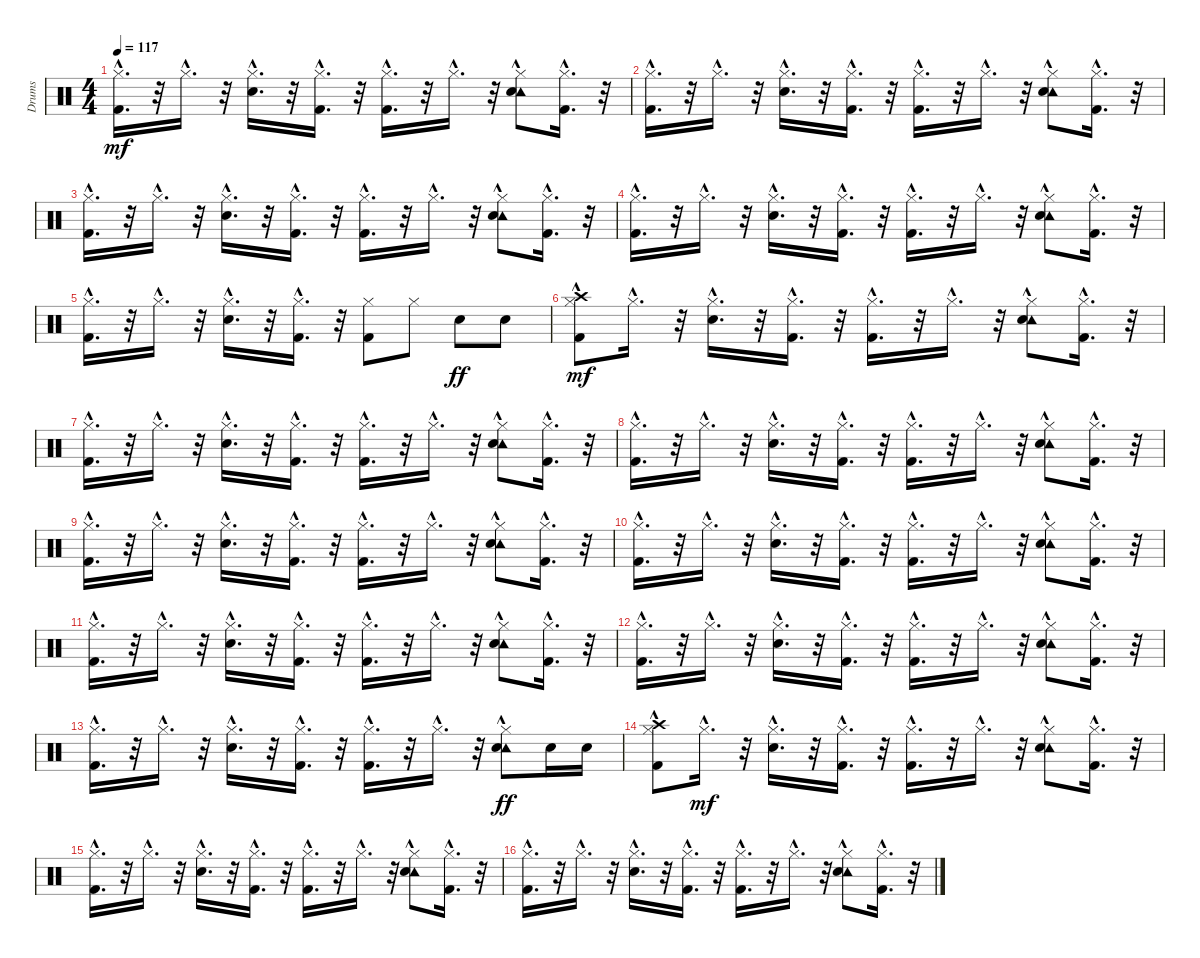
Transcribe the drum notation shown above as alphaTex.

\track ("Drums" "Drums") {instrument percussion}
\staff {score}
\articulation defaults
\ts (4 4)
\tempo 117
\clef neutral
\ks c
("Kick (hit) 2"{hac} "Hi-Hat (closed)"{hac}).16{d dy mf} r.32 "Hi-Hat (closed)"{hac}.16{d} r.32 ("Snare (hit) 2"{hac} "Hi-Hat (closed)"{hac}).16{d} r.32 ("Kick (hit) 2"{hac} "Hi-Hat (closed)"{hac}).16{d} r.32 ("Kick (hit) 2"{hac} "Hi-Hat (closed)"{hac}).16{d} r.32 "Hi-Hat (closed)"{hac}.16{d} r.32 ("Tambourine (hit)" "Snare (hit) 2"{hac} "Hi-Hat (closed)"{hac}).8 ("Kick (hit) 2"{hac} "Hi-Hat (closed)"{hac}).16{d} r.32 |
("Kick (hit) 2"{hac} "Hi-Hat (closed)"{hac}).16{d} r.32 "Hi-Hat (closed)"{hac}.16{d} r.32 ("Snare (hit) 2"{hac} "Hi-Hat (closed)"{hac}).16{d} r.32 ("Kick (hit) 2"{hac} "Hi-Hat (closed)"{hac}).16{d} r.32 ("Kick (hit) 2"{hac} "Hi-Hat (closed)"{hac}).16{d} r.32 "Hi-Hat (closed)"{hac}.16{d} r.32 ("Tambourine (hit)" "Snare (hit) 2"{hac} "Hi-Hat (closed)"{hac}).8 ("Kick (hit) 2"{hac} "Hi-Hat (closed)"{hac}).16{d} r.32 |
("Kick (hit) 2"{hac} "Hi-Hat (closed)"{hac}).16{d} r.32 "Hi-Hat (closed)"{hac}.16{d} r.32 ("Snare (hit) 2"{hac} "Hi-Hat (closed)"{hac}).16{d} r.32 ("Kick (hit) 2"{hac} "Hi-Hat (closed)"{hac}).16{d} r.32 ("Kick (hit) 2"{hac} "Hi-Hat (closed)"{hac}).16{d} r.32 "Hi-Hat (closed)"{hac}.16{d} r.32 ("Tambourine (hit)" "Snare (hit) 2"{hac} "Hi-Hat (closed)"{hac}).8 ("Kick (hit) 2"{hac} "Hi-Hat (closed)"{hac}).16{d} r.32 |
("Kick (hit) 2"{hac} "Hi-Hat (closed)"{hac}).16{d} r.32 "Hi-Hat (closed)"{hac}.16{d} r.32 ("Snare (hit) 2"{hac} "Hi-Hat (closed)"{hac}).16{d} r.32 ("Kick (hit) 2"{hac} "Hi-Hat (closed)"{hac}).16{d} r.32 ("Kick (hit) 2"{hac} "Hi-Hat (closed)"{hac}).16{d} r.32 "Hi-Hat (closed)"{hac}.16{d} r.32 ("Tambourine (hit)" "Snare (hit) 2"{hac} "Hi-Hat (closed)"{hac}).8 ("Kick (hit) 2"{hac} "Hi-Hat (closed)"{hac}).16{d} r.32 |
("Kick (hit) 2"{hac} "Hi-Hat (closed)"{hac}).16{d} r.32 "Hi-Hat (closed)"{hac}.16{d} r.32 ("Snare (hit) 2"{hac} "Hi-Hat (closed)"{hac}).16{d} r.32 ("Kick (hit) 2"{hac} "Hi-Hat (closed)"{hac}).16{d} r.32 ("Kick (hit) 2" "Hi-Hat (closed)").8 "Hi-Hat (closed)".8 "Snare (hit) 2".8{dy ff} "Snare (hit) 2".8 |
("Crash high (hit)" "Kick (hit) 2"{hac} "Hi-Hat (closed)"{hac}).8{dy mf} "Hi-Hat (closed)"{hac}.16{d} r.32 ("Snare (hit) 2"{hac} "Hi-Hat (closed)"{hac}).16{d} r.32 ("Kick (hit) 2"{hac} "Hi-Hat (closed)"{hac}).16{d} r.32 ("Kick (hit) 2"{hac} "Hi-Hat (closed)"{hac}).16{d} r.32 "Hi-Hat (closed)"{hac}.16{d} r.32 ("Tambourine (hit)" "Snare (hit) 2"{hac} "Hi-Hat (closed)"{hac}).8 ("Kick (hit) 2"{hac} "Hi-Hat (closed)"{hac}).16{d} r.32 |
("Kick (hit) 2"{hac} "Hi-Hat (closed)"{hac}).16{d} r.32 "Hi-Hat (closed)"{hac}.16{d} r.32 ("Snare (hit) 2"{hac} "Hi-Hat (closed)"{hac}).16{d} r.32 ("Kick (hit) 2"{hac} "Hi-Hat (closed)"{hac}).16{d} r.32 ("Kick (hit) 2"{hac} "Hi-Hat (closed)"{hac}).16{d} r.32 "Hi-Hat (closed)"{hac}.16{d} r.32 ("Tambourine (hit)" "Snare (hit) 2"{hac} "Hi-Hat (closed)"{hac}).8 ("Kick (hit) 2"{hac} "Hi-Hat (closed)"{hac}).16{d} r.32 |
("Kick (hit) 2"{hac} "Hi-Hat (closed)"{hac}).16{d} r.32 "Hi-Hat (closed)"{hac}.16{d} r.32 ("Snare (hit) 2"{hac} "Hi-Hat (closed)"{hac}).16{d} r.32 ("Kick (hit) 2"{hac} "Hi-Hat (closed)"{hac}).16{d} r.32 ("Kick (hit) 2"{hac} "Hi-Hat (closed)"{hac}).16{d} r.32 "Hi-Hat (closed)"{hac}.16{d} r.32 ("Tambourine (hit)" "Snare (hit) 2"{hac} "Hi-Hat (closed)"{hac}).8 ("Kick (hit) 2"{hac} "Hi-Hat (closed)"{hac}).16{d} r.32 |
("Kick (hit) 2"{hac} "Hi-Hat (closed)"{hac}).16{d} r.32 "Hi-Hat (closed)"{hac}.16{d} r.32 ("Snare (hit) 2"{hac} "Hi-Hat (closed)"{hac}).16{d} r.32 ("Kick (hit) 2"{hac} "Hi-Hat (closed)"{hac}).16{d} r.32 ("Kick (hit) 2"{hac} "Hi-Hat (closed)"{hac}).16{d} r.32 "Hi-Hat (closed)"{hac}.16{d} r.32 ("Tambourine (hit)" "Snare (hit) 2"{hac} "Hi-Hat (closed)"{hac}).8 ("Kick (hit) 2"{hac} "Hi-Hat (closed)"{hac}).16{d} r.32 |
("Kick (hit) 2"{hac} "Hi-Hat (closed)"{hac}).16{d} r.32 "Hi-Hat (closed)"{hac}.16{d} r.32 ("Snare (hit) 2"{hac} "Hi-Hat (closed)"{hac}).16{d} r.32 ("Kick (hit) 2"{hac} "Hi-Hat (closed)"{hac}).16{d} r.32 ("Kick (hit) 2"{hac} "Hi-Hat (closed)"{hac}).16{d} r.32 "Hi-Hat (closed)"{hac}.16{d} r.32 ("Tambourine (hit)" "Snare (hit) 2"{hac} "Hi-Hat (closed)"{hac}).8 ("Kick (hit) 2"{hac} "Hi-Hat (closed)"{hac}).16{d} r.32 |
("Kick (hit) 2"{hac} "Hi-Hat (closed)"{hac}).16{d} r.32 "Hi-Hat (closed)"{hac}.16{d} r.32 ("Snare (hit) 2"{hac} "Hi-Hat (closed)"{hac}).16{d} r.32 ("Kick (hit) 2"{hac} "Hi-Hat (closed)"{hac}).16{d} r.32 ("Kick (hit) 2"{hac} "Hi-Hat (closed)"{hac}).16{d} r.32 "Hi-Hat (closed)"{hac}.16{d} r.32 ("Tambourine (hit)" "Snare (hit) 2"{hac} "Hi-Hat (closed)"{hac}).8 ("Kick (hit) 2"{hac} "Hi-Hat (closed)"{hac}).16{d} r.32 |
("Kick (hit) 2"{hac} "Hi-Hat (closed)"{hac}).16{d} r.32 "Hi-Hat (closed)"{hac}.16{d} r.32 ("Snare (hit) 2"{hac} "Hi-Hat (closed)"{hac}).16{d} r.32 ("Kick (hit) 2"{hac} "Hi-Hat (closed)"{hac}).16{d} r.32 ("Kick (hit) 2"{hac} "Hi-Hat (closed)"{hac}).16{d} r.32 "Hi-Hat (closed)"{hac}.16{d} r.32 ("Tambourine (hit)" "Snare (hit) 2"{hac} "Hi-Hat (closed)"{hac}).8 ("Kick (hit) 2"{hac} "Hi-Hat (closed)"{hac}).16{d} r.32 |
("Kick (hit) 2"{hac} "Hi-Hat (closed)"{hac}).16{d} r.32 "Hi-Hat (closed)"{hac}.16{d} r.32 ("Snare (hit) 2"{hac} "Hi-Hat (closed)"{hac}).16{d} r.32 ("Kick (hit) 2"{hac} "Hi-Hat (closed)"{hac}).16{d} r.32 ("Kick (hit) 2"{hac} "Hi-Hat (closed)"{hac}).16{d} r.32 "Hi-Hat (closed)"{hac}.16{d} r.32 ("Tambourine (hit)" "Hi-Hat (closed)" "Snare (hit) 2"{hac}).8{dy ff} "Snare (hit) 2".16 "Snare (hit) 2".16 |
("Kick (hit) 2"{hac} "Hi-Hat (closed)"{hac} "Crash high (hit)").8 "Hi-Hat (closed)"{hac}.16{d dy mf} r.32 ("Snare (hit) 2"{hac} "Hi-Hat (closed)"{hac}).16{d} r.32 ("Kick (hit) 2"{hac} "Hi-Hat (closed)"{hac}).16{d} r.32 ("Kick (hit) 2"{hac} "Hi-Hat (closed)"{hac}).16{d} r.32 "Hi-Hat (closed)"{hac}.16{d} r.32 ("Tambourine (hit)" "Snare (hit) 2"{hac} "Hi-Hat (closed)"{hac}).8 ("Kick (hit) 2"{hac} "Hi-Hat (closed)"{hac}).16{d} r.32 |
("Kick (hit) 2"{hac} "Hi-Hat (closed)"{hac}).16{d} r.32 "Hi-Hat (closed)"{hac}.16{d} r.32 ("Snare (hit) 2"{hac} "Hi-Hat (closed)"{hac}).16{d} r.32 ("Kick (hit) 2"{hac} "Hi-Hat (closed)"{hac}).16{d} r.32 ("Kick (hit) 2"{hac} "Hi-Hat (closed)"{hac}).16{d} r.32 "Hi-Hat (closed)"{hac}.16{d} r.32 ("Tambourine (hit)" "Snare (hit) 2"{hac} "Hi-Hat (closed)"{hac}).8 ("Kick (hit) 2"{hac} "Hi-Hat (closed)"{hac}).16{d} r.32 |
("Kick (hit) 2"{hac} "Hi-Hat (closed)"{hac}).16{d} r.32 "Hi-Hat (closed)"{hac}.16{d} r.32 ("Snare (hit) 2"{hac} "Hi-Hat (closed)"{hac}).16{d} r.32 ("Kick (hit) 2"{hac} "Hi-Hat (closed)"{hac}).16{d} r.32 ("Kick (hit) 2"{hac} "Hi-Hat (closed)"{hac}).16{d} r.32 "Hi-Hat (closed)"{hac}.16{d} r.32 ("Tambourine (hit)" "Snare (hit) 2"{hac} "Hi-Hat (closed)"{hac}).8 ("Kick (hit) 2"{hac} "Hi-Hat (closed)"{hac}).16{d} r.32
